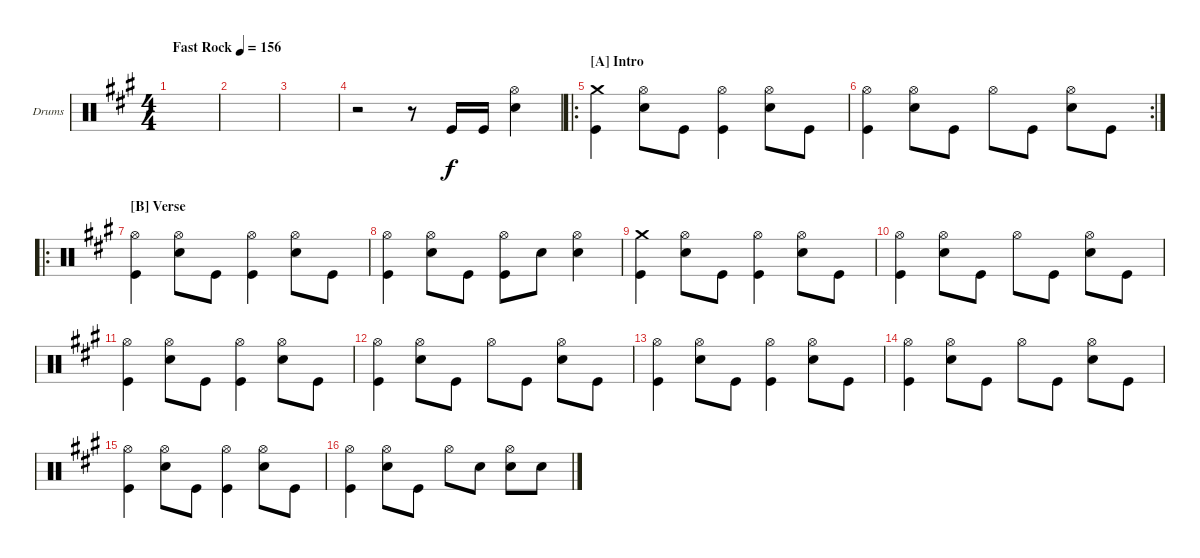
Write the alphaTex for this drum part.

\defaultSystemsLayout 4
\bracketExtendMode groupsimilarinstruments
\firstSystemTrackNameOrientation horizontal
\otherSystemsTrackNameOrientation horizontal
\track ("Drumkit" "Drums") {instrument percussion}
\staff {score}
\articulation defaults
\ts (4 4)
\tempo (156 "Fast Rock")
\clef neutral
\scale
1.11349
\ks a
|
\scale
0.943253 |
\scale
0.943253 |
\scale
1.05296 r.2 r.8 "Kick (hit)".16 "Kick (hit)".16 ("Hi-Hat (open)" "Snare (hit) 2").4 |
\ro
\section ("A" "Intro")
\scale
0.973518 ("Crash medium (hit)" "Kick (hit)").4 ("Hi-Hat (open)" "Snare (hit) 2").8 "Kick (hit)".8 ("Hi-Hat (open)" "Kick (hit)").4 ("Hi-Hat (open)" "Snare (hit) 2").8 "Kick (hit)".8 |
\rc 2
\scale
0.973518 ("Hi-Hat (open)" "Kick (hit)").4 ("Hi-Hat (open)" "Snare (hit) 2").8 "Kick (hit)".8 "Hi-Hat (open)".8 "Kick (hit)".8 ("Hi-Hat (open)" "Snare (hit) 2").8 "Kick (hit)".8 |
\ro
\section ("B" "Verse")
\scale
1.05296 ("Hi-Hat (open)" "Kick (hit)").4 ("Hi-Hat (open)" "Snare (hit) 2").8 "Kick (hit)".8 ("Hi-Hat (open)" "Kick (hit)").4 ("Hi-Hat (open)" "Snare (hit) 2").8 "Kick (hit)".8 |
\scale
0.973518 ("Hi-Hat (open)" "Kick (hit)").4 ("Hi-Hat (open)" "Snare (hit) 2").8 "Kick (hit)".8 ("Hi-Hat (open)" "Kick (hit)").8 "Snare (hit) 2".8 ("Hi-Hat (open)" "Snare (hit) 2").4 |
\scale
0.973518 ("Crash medium (hit)" "Kick (hit)").4 ("Hi-Hat (open)" "Snare (hit) 2").8 "Kick (hit)".8 ("Hi-Hat (open)" "Kick (hit)").4 ("Hi-Hat (open)" "Snare (hit) 2").8 "Kick (hit)".8 |
\scale
1.05296 ("Hi-Hat (open)" "Kick (hit)").4 ("Hi-Hat (open)" "Snare (hit) 2").8 "Kick (hit)".8 "Hi-Hat (open)".8 "Kick (hit)".8 ("Hi-Hat (open)" "Snare (hit) 2").8 "Kick (hit)".8 |
\scale
0.973518 ("Hi-Hat (open)" "Kick (hit)").4 ("Hi-Hat (open)" "Snare (hit) 2").8 "Kick (hit)".8 ("Hi-Hat (open)" "Kick (hit)").4 ("Hi-Hat (open)" "Snare (hit) 2").8 "Kick (hit)".8 |
\scale
0.973518 ("Hi-Hat (open)" "Kick (hit)").4 ("Hi-Hat (open)" "Snare (hit) 2").8 "Kick (hit)".8 "Hi-Hat (open)".8 "Kick (hit)".8 ("Hi-Hat (open)" "Snare (hit) 2").8 "Kick (hit)".8 |
\scale
1.05296 ("Kick (hit)" "Hi-Hat (open)").4 ("Snare (hit) 2" "Hi-Hat (open)").8 "Kick (hit)".8 ("Kick (hit)" "Hi-Hat (open)").4 ("Snare (hit) 2" "Hi-Hat (open)").8 "Kick (hit)".8 |
\scale
0.973518 ("Kick (hit)" "Hi-Hat (open)").4 ("Snare (hit) 2" "Hi-Hat (open)").8 "Kick (hit)".8 "Hi-Hat (open)".8 "Kick (hit)".8 ("Snare (hit) 2" "Hi-Hat (open)").8 "Kick (hit)".8 |
\scale
0.973518 ("Kick (hit)" "Hi-Hat (open)").4 ("Snare (hit) 2" "Hi-Hat (open)").8 "Kick (hit)".8 ("Kick (hit)" "Hi-Hat (open)").4 ("Snare (hit) 2" "Hi-Hat (open)").8 "Kick (hit)".8 |
\scale
1.05296 ("Kick (hit)" "Hi-Hat (open)").4 ("Snare (hit) 2" "Hi-Hat (open)").8 "Kick (hit)".8 "Hi-Hat (open)".8 "Snare (hit) 2".8 ("Snare (hit) 2" "Hi-Hat (open)").8 "Snare (hit) 2".8
